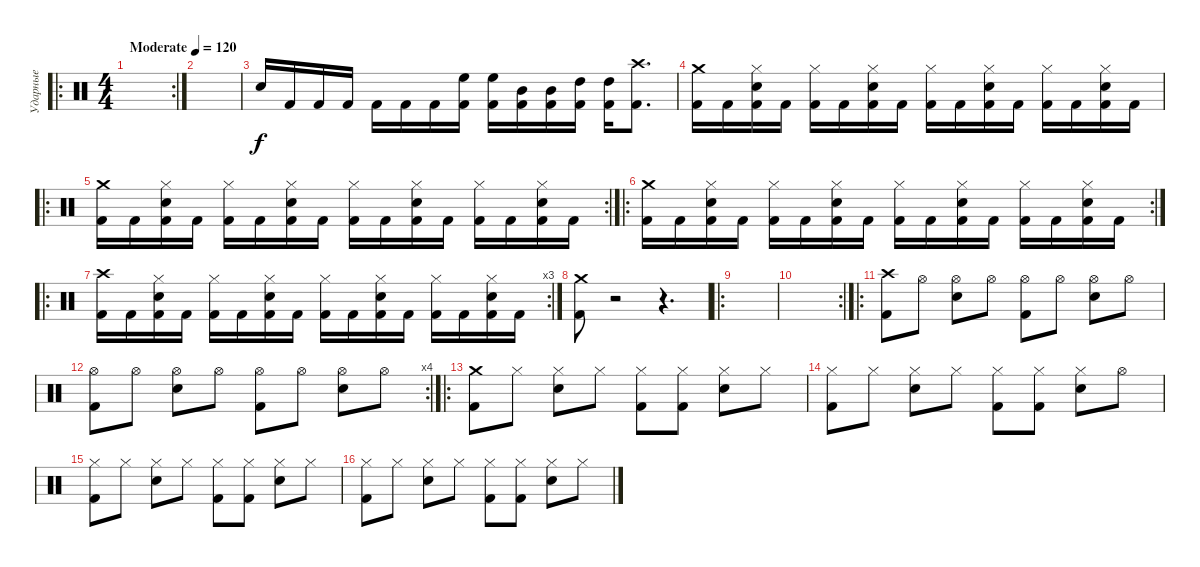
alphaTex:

\track ("Ударные" "Ударные") {instrument percussion}
\staff {score}
\articulation defaults
\ro
\rc 2
\ts (4 4)
\tempo (120 "Moderate")
\clef neutral
\ks c
|
|
"Electric Snare (hit)".16 "Kick (hit) 2".16 "Kick (hit) 2".16 "Kick (hit) 2".16 "Kick (hit) 2".16 "Kick (hit) 2".16 "Kick (hit) 2".16 ("High Floor Tom (hit)" "Kick (hit) 2").16 ("High Floor Tom (hit)" "Kick (hit) 2").16 ("Mid Tom (hit)" "Kick (hit) 2").16 ("Mid Tom (hit)" "Kick (hit) 2").16 ("High Tom (hit)" "Kick (hit) 2").16 ("High Tom (hit)" "Kick (hit) 2").16 ("Crash high (hit)" "Kick (hit) 2").8{d} |
("Crash medium (hit)" "Kick (hit) 2").16 "Kick (hit) 2".16 ("Hi-Hat (closed)" "Electric Snare (hit)" "Kick (hit) 2").16 "Kick (hit) 2".16 ("Hi-Hat (closed)" "Kick (hit) 2").16 "Kick (hit) 2".16 ("Hi-Hat (closed)" "Electric Snare (hit)" "Kick (hit) 2").16 "Kick (hit) 2".16 ("Hi-Hat (closed)" "Kick (hit) 2").16 "Kick (hit) 2".16 ("Hi-Hat (closed)" "Electric Snare (hit)" "Kick (hit) 2").16 "Kick (hit) 2".16 ("Hi-Hat (closed)" "Kick (hit) 2").16 "Kick (hit) 2".16 ("Hi-Hat (closed)" "Electric Snare (hit)" "Kick (hit) 2").16 "Kick (hit) 2".16 |
\ro
\rc 2
("Crash medium (hit)" "Kick (hit) 2").16 "Kick (hit) 2".16 ("Hi-Hat (closed)" "Electric Snare (hit)" "Kick (hit) 2").16 "Kick (hit) 2".16 ("Hi-Hat (closed)" "Kick (hit) 2").16 "Kick (hit) 2".16 ("Hi-Hat (closed)" "Electric Snare (hit)" "Kick (hit) 2").16 "Kick (hit) 2".16 ("Hi-Hat (closed)" "Kick (hit) 2").16 "Kick (hit) 2".16 ("Hi-Hat (closed)" "Electric Snare (hit)" "Kick (hit) 2").16 "Kick (hit) 2".16 ("Hi-Hat (closed)" "Kick (hit) 2").16 "Kick (hit) 2".16 ("Hi-Hat (closed)" "Electric Snare (hit)" "Kick (hit) 2").16 "Kick (hit) 2".16 |
\ro
\rc 2
("Crash medium (hit)" "Kick (hit) 2").16 "Kick (hit) 2".16 ("Hi-Hat (closed)" "Electric Snare (hit)" "Kick (hit) 2").16 "Kick (hit) 2".16 ("Hi-Hat (closed)" "Kick (hit) 2").16 "Kick (hit) 2".16 ("Hi-Hat (closed)" "Electric Snare (hit)" "Kick (hit) 2").16 "Kick (hit) 2".16 ("Hi-Hat (closed)" "Kick (hit) 2").16 "Kick (hit) 2".16 ("Hi-Hat (closed)" "Electric Snare (hit)" "Kick (hit) 2").16 "Kick (hit) 2".16 ("Hi-Hat (closed)" "Kick (hit) 2").16 "Kick (hit) 2".16 ("Hi-Hat (closed)" "Electric Snare (hit)" "Kick (hit) 2").16 "Kick (hit) 2".16 |
\ro
\rc 3
("Crash high (hit)" "Kick (hit) 2").16 "Kick (hit) 2".16 ("Hi-Hat (closed)" "Electric Snare (hit)" "Kick (hit) 2").16 "Kick (hit) 2".16 ("Hi-Hat (closed)" "Kick (hit) 2").16 "Kick (hit) 2".16 ("Hi-Hat (closed)" "Electric Snare (hit)" "Kick (hit) 2").16 "Kick (hit) 2".16 ("Hi-Hat (closed)" "Kick (hit) 2").16 "Kick (hit) 2".16 ("Hi-Hat (closed)" "Electric Snare (hit)" "Kick (hit) 2").16 "Kick (hit) 2".16 ("Hi-Hat (closed)" "Kick (hit) 2").16 "Kick (hit) 2".16 ("Hi-Hat (closed)" "Electric Snare (hit)" "Kick (hit) 2").16 "Kick (hit) 2".16 |
("Crash medium (hit)" "Kick (hit) 2").8 r.2 r.4{d} |
\ro
|
\rc 2
|
\ro
("Crash high (hit)" "Kick (hit) 2").8 "Hi-Hat (open)".8 ("Hi-Hat (open)" "Electric Snare (hit)").8 "Hi-Hat (open)".8 ("Hi-Hat (open)" "Kick (hit) 2").8 "Hi-Hat (open)".8 ("Hi-Hat (open)" "Electric Snare (hit)").8 "Hi-Hat (open)".8 |
\rc 4
("Hi-Hat (open)" "Kick (hit) 2").8 "Hi-Hat (open)".8 ("Hi-Hat (open)" "Electric Snare (hit)").8 "Hi-Hat (open)".8 ("Hi-Hat (open)" "Kick (hit) 2").8 "Hi-Hat (open)".8 ("Hi-Hat (open)" "Electric Snare (hit)").8 "Hi-Hat (open)".8 |
\ro
("Crash medium (hit)" "Kick (hit) 2").8 "Hi-Hat (closed)".8 ("Hi-Hat (closed)" "Electric Snare (hit)").8 "Hi-Hat (closed)".8 ("Hi-Hat (closed)" "Kick (hit) 2").8 ("Hi-Hat (closed)" "Kick (hit) 2").8 ("Hi-Hat (closed)" "Electric Snare (hit)").8 "Hi-Hat (closed)".8 |
("Hi-Hat (closed)" "Kick (hit) 2").8 "Hi-Hat (closed)".8 ("Hi-Hat (closed)" "Electric Snare (hit)").8 "Hi-Hat (closed)".8 ("Hi-Hat (closed)" "Kick (hit) 2").8 ("Hi-Hat (closed)" "Kick (hit) 2").8 ("Hi-Hat (closed)" "Electric Snare (hit)").8 "Hi-Hat (open)".8 |
("Hi-Hat (closed)" "Kick (hit) 2").8 "Hi-Hat (closed)".8 ("Hi-Hat (closed)" "Electric Snare (hit)").8 "Hi-Hat (closed)".8 ("Hi-Hat (closed)" "Kick (hit) 2").8 ("Hi-Hat (closed)" "Kick (hit) 2").8 ("Hi-Hat (closed)" "Electric Snare (hit)").8 "Hi-Hat (closed)".8 |
("Hi-Hat (closed)" "Kick (hit) 2").8 "Hi-Hat (closed)".8 ("Hi-Hat (closed)" "Electric Snare (hit)").8 "Hi-Hat (closed)".8 ("Hi-Hat (closed)" "Kick (hit) 2").8 ("Hi-Hat (closed)" "Kick (hit) 2").8 ("Hi-Hat (closed)" "Electric Snare (hit)").8 "Hi-Hat (closed)".8
